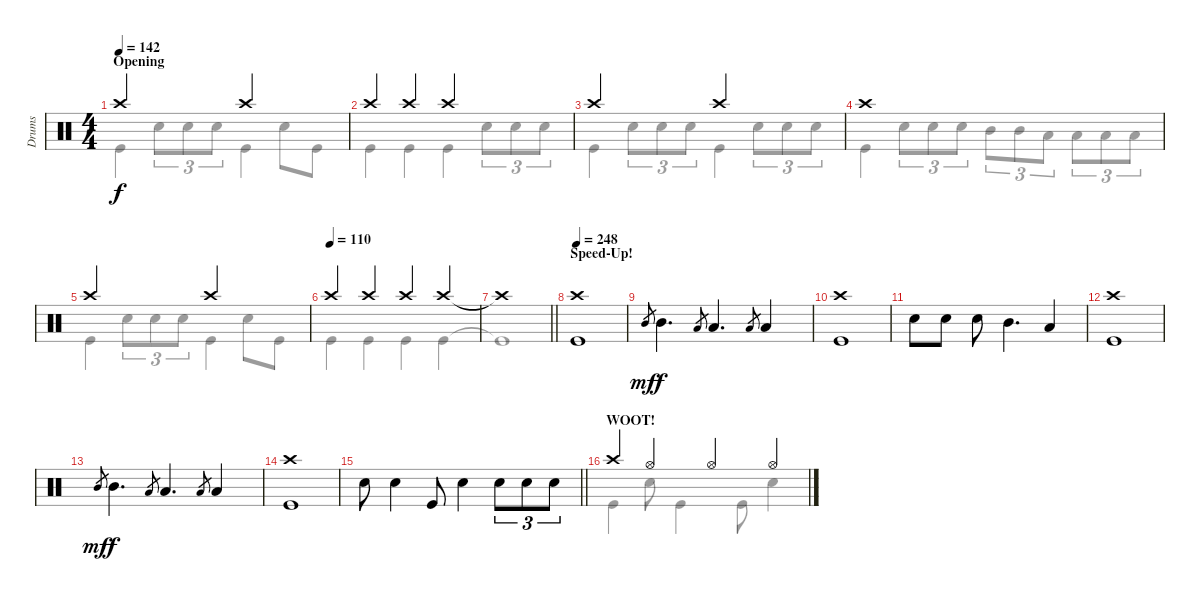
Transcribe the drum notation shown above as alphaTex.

\track ("Drums" "Drums") {instrument percussion}
\staff {score}
\articulation defaults
\voice
\ts (4 4)
\section ("" "Opening")
\tempo 142
\clef neutral
\ks c "Crash high (hit)".2{dy f} "Crash high (hit)".2
|
"Crash high (hit)".4 "Crash high (hit)".4 "Crash high (hit)".2 |
"Crash high (hit)".2 "Crash high (hit)".2 |
"Crash high (hit)".1 |
"Crash high (hit)".2 "Crash high (hit)".2 |
\tempo (110)
"Crash high (hit)".4 "Crash high (hit)".4 "Crash high (hit)".4 "Crash high (hit)".4 |
\barLineRight lightlight "Crash high (hit)"{t}.1
|
\section ("" "Speed-Up!")
\tempo 248
("Crash high (hit)" "Kick (hit)").1 |
"Mid Tom (hit)".8{gr dy mf} "Mid Tom (hit)".4{d dy f} "Low Tom (hit)".8{gr} "Low Tom (hit)".4{d} "Low Floor Tom (hit)".8{gr} "Low Floor Tom (hit)".4 |
("Crash high (hit)" "Kick (hit)").1 |
"Electric Snare (hit)".8 "Electric Snare (hit)".8 "Electric Snare (hit)".8 "Mid Tom (hit)".4{d} "Low Floor Tom (hit)".4 |
("Crash high (hit)" "Kick (hit)").1 |
"Mid Tom (hit)".8{gr dy mf} "Mid Tom (hit)".4{d dy f} "Low Tom (hit)".8{gr} "Low Tom (hit)".4{d} "Low Floor Tom (hit)".8{gr} "Low Floor Tom (hit)".4 |
("Crash high (hit)" "Kick (hit)").1 |
\barLineRight lightlight "Electric Snare (hit)".8 "Electric Snare (hit)".4 "Kick (hit)".8 "Electric Snare (hit)".4 "Electric Snare (hit)".8{tu (3 2)} "Electric Snare (hit)".8{tu (3 2)} "Electric Snare (hit)".8{tu (3 2)}
|
\section ("" "WOOT!")
"Crash high (hit)".4 "Hi-Hat (open)".4 "Hi-Hat (open)".4 "Hi-Hat (open)".4
\voice
\clef neutral
\ottava regular
\simile none
\ks c "Kick (hit)".4{dy f} "Electric Snare (hit)".8{tu (3 2)} "Electric Snare (hit)".8{tu (3 2)} "Electric Snare (hit)".8{tu (3 2)} "Kick (hit)".4 "Electric Snare (hit)".8 "Kick (hit)".8
|
"Kick (hit)".4 "Kick (hit)".4 "Kick (hit)".4 "Electric Snare (hit)".8{tu (3 2)} "Electric Snare (hit)".8{tu (3 2)} "Electric Snare (hit)".8{tu (3 2)} |
"Kick (hit)".4 "Electric Snare (hit)".8{tu (3 2)} "Electric Snare (hit)".8{tu (3 2)} "Electric Snare (hit)".8{tu (3 2)} "Kick (hit)".4 "Electric Snare (hit)".8{tu (3 2)} "Electric Snare (hit)".8{tu (3 2)} "Electric Snare (hit)".8{tu (3 2)} |
"Kick (hit)".4 "Electric Snare (hit)".8{tu (3 2)} "Electric Snare (hit)".8{tu (3 2)} "Electric Snare (hit)".8{tu (3 2)} "Mid Tom (hit)".8{tu (3 2)} "Mid Tom (hit)".8{tu (3 2)} "Low Tom (hit)".8{tu (3 2)} "Low Tom (hit)".8{tu (3 2)} "Low Floor Tom (hit)".8{tu (3 2)} "Low Floor Tom (hit)".8{tu (3 2)} |
"Kick (hit)".4 "Electric Snare (hit)".8{tu (3 2)} "Electric Snare (hit)".8{tu (3 2)} "Electric Snare (hit)".8{tu (3 2)} "Kick (hit)".4 "Electric Snare (hit)".8 "Kick (hit)".8 |
"Kick (hit)".4 "Kick (hit)".4 "Kick (hit)".4 "Kick (hit)".4 |
\barLineRight lightlight "Kick (hit)"{t}.1
|
|
|
|
|
|
|
|
\barLineRight lightlight
|
"Kick (hit)".4 "Electric Snare (hit)".8 "Kick (hit)".4 "Kick (hit)".8 "Electric Snare (hit)".4
